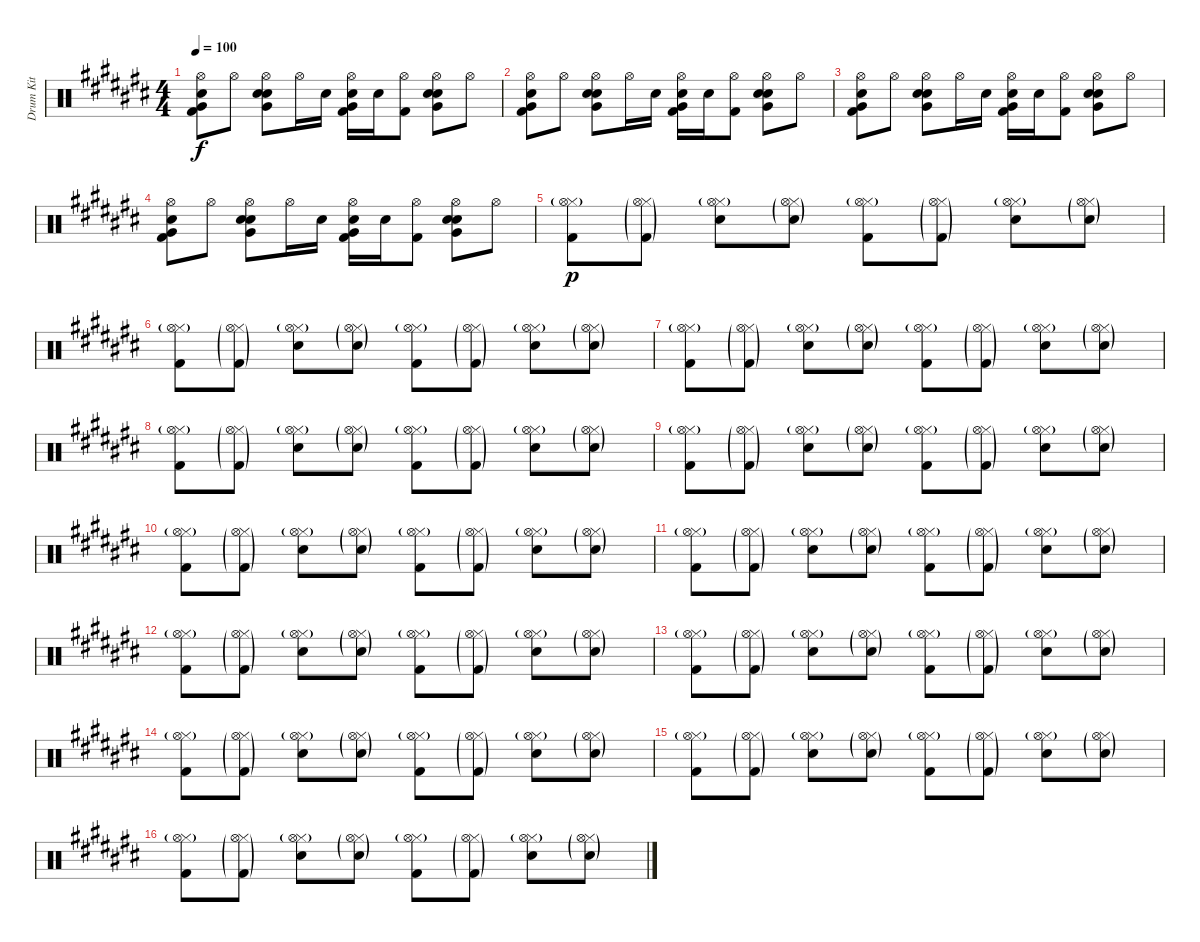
\track ("Drum Kit" "Drum Kit") {instrument percussion}
\staff {score}
\articulation defaults
\ts (4 4)
\tempo 100
\clef neutral
\ks c#
("Hi-Hat (open)" "Electric Snare (hit)" "Very Low Tom (hit)" "Kick (hit) 2").8{dy f} "Hi-Hat (open)".8 ("Hi-Hat (open)" "Electric Snare (hit)" "Very Low Tom (hit)" "Snare (hit) 2").8 "Hi-Hat (open)".16 "Snare (hit) 2".16 ("Hi-Hat (open)" "Electric Snare (hit)" "Very Low Tom (hit)" "Kick (hit) 2").16 "Snare (hit) 2".16 ("Hi-Hat (open)" "Kick (hit) 2").8 ("Hi-Hat (open)" "Electric Snare (hit)" "Very Low Tom (hit)" "Snare (hit) 2").8 "Hi-Hat (open)".8 |
("Hi-Hat (open)" "Electric Snare (hit)" "Very Low Tom (hit)" "Kick (hit) 2").8 "Hi-Hat (open)".8 ("Hi-Hat (open)" "Electric Snare (hit)" "Very Low Tom (hit)" "Snare (hit) 2").8 "Hi-Hat (open)".16 "Snare (hit) 2".16 ("Hi-Hat (open)" "Electric Snare (hit)" "Very Low Tom (hit)" "Kick (hit) 2").16 "Snare (hit) 2".16 ("Hi-Hat (open)" "Kick (hit) 2").8 ("Hi-Hat (open)" "Electric Snare (hit)" "Very Low Tom (hit)" "Snare (hit) 2").8 "Hi-Hat (open)".8 |
("Hi-Hat (open)" "Electric Snare (hit)" "Very Low Tom (hit)" "Kick (hit) 2").8 "Hi-Hat (open)".8 ("Hi-Hat (open)" "Electric Snare (hit)" "Very Low Tom (hit)" "Snare (hit) 2").8 "Hi-Hat (open)".16 "Snare (hit) 2".16 ("Hi-Hat (open)" "Electric Snare (hit)" "Very Low Tom (hit)" "Kick (hit) 2").16 "Snare (hit) 2".16 ("Hi-Hat (open)" "Kick (hit) 2").8 ("Hi-Hat (open)" "Electric Snare (hit)" "Very Low Tom (hit)" "Snare (hit) 2").8 "Hi-Hat (open)".8 |
("Hi-Hat (open)" "Electric Snare (hit)" "Very Low Tom (hit)" "Kick (hit) 2").8 "Hi-Hat (open)".8 ("Hi-Hat (open)" "Electric Snare (hit)" "Very Low Tom (hit)" "Snare (hit) 2").8 "Hi-Hat (open)".16 "Snare (hit) 2".16 ("Hi-Hat (open)" "Electric Snare (hit)" "Very Low Tom (hit)" "Kick (hit) 2").16 "Snare (hit) 2".16 ("Hi-Hat (open)" "Kick (hit) 2").8 ("Hi-Hat (open)" "Electric Snare (hit)" "Very Low Tom (hit)" "Snare (hit) 2").8 "Hi-Hat (open)".8 |
("Hi-Hat (closed)" "Hi-Hat (open)"{g} "Kick (hit) 2").8{dy p} ("Hi-Hat (closed)" "Hi-Hat (open)"{g} "Kick (hit) 2"{g}).8 ("Hi-Hat (closed)" "Hi-Hat (open)"{g} "Snare (hit) 2").8 ("Hi-Hat (closed)" "Hi-Hat (open)"{g} "Snare (hit) 2"{g}).8 ("Hi-Hat (closed)" "Hi-Hat (open)"{g} "Kick (hit) 2").8 ("Hi-Hat (closed)" "Hi-Hat (open)"{g} "Kick (hit) 2"{g}).8 ("Hi-Hat (closed)" "Hi-Hat (open)"{g} "Snare (hit) 2").8 ("Hi-Hat (closed)" "Hi-Hat (open)"{g} "Snare (hit) 2"{g}).8 |
("Hi-Hat (closed)" "Hi-Hat (open)"{g} "Kick (hit) 2").8 ("Hi-Hat (closed)" "Hi-Hat (open)"{g} "Kick (hit) 2"{g}).8 ("Hi-Hat (closed)" "Hi-Hat (open)"{g} "Snare (hit) 2").8 ("Hi-Hat (closed)" "Hi-Hat (open)"{g} "Snare (hit) 2"{g}).8 ("Hi-Hat (closed)" "Hi-Hat (open)"{g} "Kick (hit) 2").8 ("Hi-Hat (closed)" "Hi-Hat (open)"{g} "Kick (hit) 2"{g}).8 ("Hi-Hat (closed)" "Hi-Hat (open)"{g} "Snare (hit) 2").8 ("Hi-Hat (closed)" "Hi-Hat (open)"{g} "Snare (hit) 2"{g}).8 |
("Hi-Hat (closed)" "Hi-Hat (open)"{g} "Kick (hit) 2").8 ("Hi-Hat (closed)" "Hi-Hat (open)"{g} "Kick (hit) 2"{g}).8 ("Hi-Hat (closed)" "Hi-Hat (open)"{g} "Snare (hit) 2").8 ("Hi-Hat (closed)" "Hi-Hat (open)"{g} "Snare (hit) 2"{g}).8 ("Hi-Hat (closed)" "Hi-Hat (open)"{g} "Kick (hit) 2").8 ("Hi-Hat (closed)" "Hi-Hat (open)"{g} "Kick (hit) 2"{g}).8 ("Hi-Hat (closed)" "Hi-Hat (open)"{g} "Snare (hit) 2").8 ("Hi-Hat (closed)" "Hi-Hat (open)"{g} "Snare (hit) 2"{g}).8 |
("Hi-Hat (closed)" "Hi-Hat (open)"{g} "Kick (hit) 2").8 ("Hi-Hat (closed)" "Hi-Hat (open)"{g} "Kick (hit) 2"{g}).8 ("Hi-Hat (closed)" "Hi-Hat (open)"{g} "Snare (hit) 2").8 ("Hi-Hat (closed)" "Hi-Hat (open)"{g} "Snare (hit) 2"{g}).8 ("Hi-Hat (closed)" "Hi-Hat (open)"{g} "Kick (hit) 2").8 ("Hi-Hat (closed)" "Hi-Hat (open)"{g} "Kick (hit) 2"{g}).8 ("Hi-Hat (closed)" "Hi-Hat (open)"{g} "Snare (hit) 2").8 ("Hi-Hat (closed)" "Hi-Hat (open)"{g} "Snare (hit) 2"{g}).8 |
("Hi-Hat (closed)" "Hi-Hat (open)"{g} "Kick (hit) 2").8 ("Hi-Hat (closed)" "Hi-Hat (open)"{g} "Kick (hit) 2"{g}).8 ("Hi-Hat (closed)" "Hi-Hat (open)"{g} "Snare (hit) 2").8 ("Hi-Hat (closed)" "Hi-Hat (open)"{g} "Snare (hit) 2"{g}).8 ("Hi-Hat (closed)" "Hi-Hat (open)"{g} "Kick (hit) 2").8 ("Hi-Hat (closed)" "Hi-Hat (open)"{g} "Kick (hit) 2"{g}).8 ("Hi-Hat (closed)" "Hi-Hat (open)"{g} "Snare (hit) 2").8 ("Hi-Hat (closed)" "Hi-Hat (open)"{g} "Snare (hit) 2"{g}).8 |
("Hi-Hat (closed)" "Hi-Hat (open)"{g} "Kick (hit) 2").8 ("Hi-Hat (closed)" "Hi-Hat (open)"{g} "Kick (hit) 2"{g}).8 ("Hi-Hat (closed)" "Hi-Hat (open)"{g} "Snare (hit) 2").8 ("Hi-Hat (closed)" "Hi-Hat (open)"{g} "Snare (hit) 2"{g}).8 ("Hi-Hat (closed)" "Hi-Hat (open)"{g} "Kick (hit) 2").8 ("Hi-Hat (closed)" "Hi-Hat (open)"{g} "Kick (hit) 2"{g}).8 ("Hi-Hat (closed)" "Hi-Hat (open)"{g} "Snare (hit) 2").8 ("Hi-Hat (closed)" "Hi-Hat (open)"{g} "Snare (hit) 2"{g}).8 |
("Hi-Hat (closed)" "Hi-Hat (open)"{g} "Kick (hit) 2").8 ("Hi-Hat (closed)" "Hi-Hat (open)"{g} "Kick (hit) 2"{g}).8 ("Hi-Hat (closed)" "Hi-Hat (open)"{g} "Snare (hit) 2").8 ("Hi-Hat (closed)" "Hi-Hat (open)"{g} "Snare (hit) 2"{g}).8 ("Hi-Hat (closed)" "Hi-Hat (open)"{g} "Kick (hit) 2").8 ("Hi-Hat (closed)" "Hi-Hat (open)"{g} "Kick (hit) 2"{g}).8 ("Hi-Hat (closed)" "Hi-Hat (open)"{g} "Snare (hit) 2").8 ("Hi-Hat (closed)" "Hi-Hat (open)"{g} "Snare (hit) 2"{g}).8 |
("Hi-Hat (closed)" "Hi-Hat (open)"{g} "Kick (hit) 2").8 ("Hi-Hat (closed)" "Hi-Hat (open)"{g} "Kick (hit) 2"{g}).8 ("Hi-Hat (closed)" "Hi-Hat (open)"{g} "Snare (hit) 2").8 ("Hi-Hat (closed)" "Hi-Hat (open)"{g} "Snare (hit) 2"{g}).8 ("Hi-Hat (closed)" "Hi-Hat (open)"{g} "Kick (hit) 2").8 ("Hi-Hat (closed)" "Hi-Hat (open)"{g} "Kick (hit) 2"{g}).8 ("Hi-Hat (closed)" "Hi-Hat (open)"{g} "Snare (hit) 2").8 ("Hi-Hat (closed)" "Hi-Hat (open)"{g} "Snare (hit) 2"{g}).8 |
("Hi-Hat (closed)" "Hi-Hat (open)"{g} "Kick (hit) 2").8 ("Hi-Hat (closed)" "Hi-Hat (open)"{g} "Kick (hit) 2"{g}).8 ("Hi-Hat (closed)" "Hi-Hat (open)"{g} "Snare (hit) 2").8 ("Hi-Hat (closed)" "Hi-Hat (open)"{g} "Snare (hit) 2"{g}).8 ("Hi-Hat (closed)" "Hi-Hat (open)"{g} "Kick (hit) 2").8 ("Hi-Hat (closed)" "Hi-Hat (open)"{g} "Kick (hit) 2"{g}).8 ("Hi-Hat (closed)" "Hi-Hat (open)"{g} "Snare (hit) 2").8 ("Hi-Hat (closed)" "Hi-Hat (open)"{g} "Snare (hit) 2"{g}).8 |
("Hi-Hat (closed)" "Hi-Hat (open)"{g} "Kick (hit) 2").8 ("Hi-Hat (closed)" "Hi-Hat (open)"{g} "Kick (hit) 2"{g}).8 ("Hi-Hat (closed)" "Hi-Hat (open)"{g} "Snare (hit) 2").8 ("Hi-Hat (closed)" "Hi-Hat (open)"{g} "Snare (hit) 2"{g}).8 ("Hi-Hat (closed)" "Hi-Hat (open)"{g} "Kick (hit) 2").8 ("Hi-Hat (closed)" "Hi-Hat (open)"{g} "Kick (hit) 2"{g}).8 ("Hi-Hat (closed)" "Hi-Hat (open)"{g} "Snare (hit) 2").8 ("Hi-Hat (closed)" "Hi-Hat (open)"{g} "Snare (hit) 2"{g}).8 |
("Hi-Hat (closed)" "Hi-Hat (open)"{g} "Kick (hit) 2").8 ("Hi-Hat (closed)" "Hi-Hat (open)"{g} "Kick (hit) 2"{g}).8 ("Hi-Hat (closed)" "Hi-Hat (open)"{g} "Snare (hit) 2").8 ("Hi-Hat (closed)" "Hi-Hat (open)"{g} "Snare (hit) 2"{g}).8 ("Hi-Hat (closed)" "Hi-Hat (open)"{g} "Kick (hit) 2").8 ("Hi-Hat (closed)" "Hi-Hat (open)"{g} "Kick (hit) 2"{g}).8 ("Hi-Hat (closed)" "Hi-Hat (open)"{g} "Snare (hit) 2").8 ("Hi-Hat (closed)" "Hi-Hat (open)"{g} "Snare (hit) 2"{g}).8 |
("Hi-Hat (closed)" "Hi-Hat (open)"{g} "Kick (hit) 2").8 ("Hi-Hat (closed)" "Hi-Hat (open)"{g} "Kick (hit) 2"{g}).8 ("Hi-Hat (closed)" "Hi-Hat (open)"{g} "Snare (hit) 2").8 ("Hi-Hat (closed)" "Hi-Hat (open)"{g} "Snare (hit) 2"{g}).8 ("Hi-Hat (closed)" "Hi-Hat (open)"{g} "Kick (hit) 2").8 ("Hi-Hat (closed)" "Hi-Hat (open)"{g} "Kick (hit) 2"{g}).8 ("Hi-Hat (closed)" "Hi-Hat (open)"{g} "Snare (hit) 2").8 ("Hi-Hat (closed)" "Hi-Hat (open)"{g} "Snare (hit) 2"{g}).8
